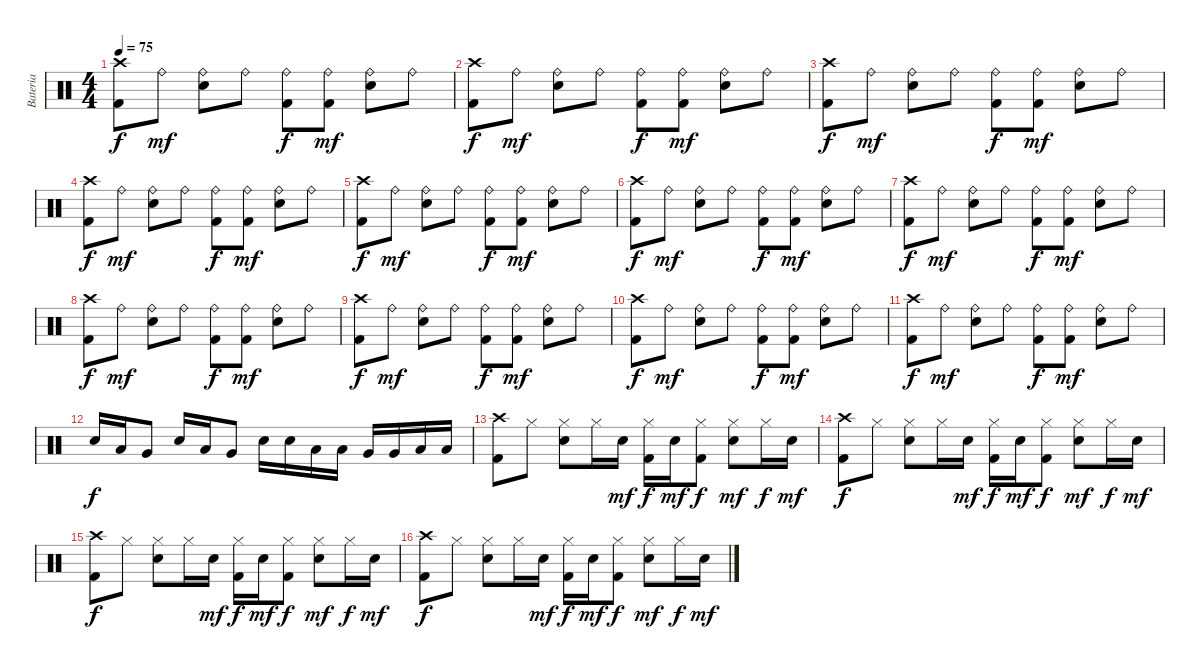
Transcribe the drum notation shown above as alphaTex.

\track ("Bateria" "Bateria") {instrument percussion}
\staff {score}
\articulation defaults
\ts (4 4)
\tempo 75
\clef neutral
\ks c
("Crash high (hit)" "Kick (hit) 2").8{dy f} "Ride (bell)".8{dy mf} ("Ride (bell)" "Snare (hit) 2").8 "Ride (bell)".8 ("Ride (bell)" "Kick (hit) 2").8{dy f} ("Ride (bell)" "Kick (hit) 2").8{dy mf} ("Ride (bell)" "Snare (hit) 2").8 "Ride (bell)".8 |
("Crash high (hit)" "Kick (hit) 2").8{dy f} "Ride (bell)".8{dy mf} ("Ride (bell)" "Snare (hit) 2").8 "Ride (bell)".8 ("Ride (bell)" "Kick (hit) 2").8{dy f} ("Ride (bell)" "Kick (hit) 2").8{dy mf} ("Ride (bell)" "Snare (hit) 2").8 "Ride (bell)".8 |
("Crash high (hit)" "Kick (hit) 2").8{dy f} "Ride (bell)".8{dy mf} ("Ride (bell)" "Snare (hit) 2").8 "Ride (bell)".8 ("Ride (bell)" "Kick (hit) 2").8{dy f} ("Ride (bell)" "Kick (hit) 2").8{dy mf} ("Ride (bell)" "Snare (hit) 2").8 "Ride (bell)".8 |
("Crash high (hit)" "Kick (hit) 2").8{dy f} "Ride (bell)".8{dy mf} ("Ride (bell)" "Snare (hit) 2").8 "Ride (bell)".8 ("Ride (bell)" "Kick (hit) 2").8{dy f} ("Ride (bell)" "Kick (hit) 2").8{dy mf} ("Ride (bell)" "Snare (hit) 2").8 "Ride (bell)".8 |
("Crash high (hit)" "Kick (hit) 2").8{dy f} "Ride (bell)".8{dy mf} ("Ride (bell)" "Snare (hit) 2").8 "Ride (bell)".8 ("Ride (bell)" "Kick (hit) 2").8{dy f} ("Ride (bell)" "Kick (hit) 2").8{dy mf} ("Ride (bell)" "Snare (hit) 2").8 "Ride (bell)".8 |
("Crash high (hit)" "Kick (hit) 2").8{dy f} "Ride (bell)".8{dy mf} ("Ride (bell)" "Snare (hit) 2").8 "Ride (bell)".8 ("Ride (bell)" "Kick (hit) 2").8{dy f} ("Ride (bell)" "Kick (hit) 2").8{dy mf} ("Ride (bell)" "Snare (hit) 2").8 "Ride (bell)".8 |
("Crash high (hit)" "Kick (hit) 2").8{dy f} "Ride (bell)".8{dy mf} ("Ride (bell)" "Snare (hit) 2").8 "Ride (bell)".8 ("Ride (bell)" "Kick (hit) 2").8{dy f} ("Ride (bell)" "Kick (hit) 2").8{dy mf} ("Ride (bell)" "Snare (hit) 2").8 "Ride (bell)".8 |
("Crash high (hit)" "Kick (hit) 2").8{dy f} "Ride (bell)".8{dy mf} ("Ride (bell)" "Snare (hit) 2").8 "Ride (bell)".8 ("Ride (bell)" "Kick (hit) 2").8{dy f} ("Ride (bell)" "Kick (hit) 2").8{dy mf} ("Ride (bell)" "Snare (hit) 2").8 "Ride (bell)".8 |
("Crash high (hit)" "Kick (hit) 2").8{dy f} "Ride (bell)".8{dy mf} ("Ride (bell)" "Snare (hit) 2").8 "Ride (bell)".8 ("Ride (bell)" "Kick (hit) 2").8{dy f} ("Ride (bell)" "Kick (hit) 2").8{dy mf} ("Ride (bell)" "Snare (hit) 2").8 "Ride (bell)".8 |
("Crash high (hit)" "Kick (hit) 2").8{dy f} "Ride (bell)".8{dy mf} ("Ride (bell)" "Snare (hit) 2").8 "Ride (bell)".8 ("Ride (bell)" "Kick (hit) 2").8{dy f} ("Ride (bell)" "Kick (hit) 2").8{dy mf} ("Ride (bell)" "Snare (hit) 2").8 "Ride (bell)".8 |
("Crash high (hit)" "Kick (hit) 2").8{dy f} "Ride (bell)".8{dy mf} ("Ride (bell)" "Snare (hit) 2").8 "Ride (bell)".8 ("Ride (bell)" "Kick (hit) 2").8{dy f} ("Ride (bell)" "Kick (hit) 2").8{dy mf} ("Ride (bell)" "Snare (hit) 2").8 "Ride (bell)".8 |
"Snare (hit) 2".16{dy f} "Low Tom (hit)".16 "Very Low Tom (hit)".8 "Snare (hit) 2".16 "Low Tom (hit)".16 "Very Low Tom (hit)".8 "Snare (hit) 2".16 "Snare (hit) 2".16 "Low Tom (hit)".16 "Low Tom (hit)".16 "Very Low Tom (hit)".16 "Very Low Tom (hit)".16 "Low Floor Tom (hit)".16 "Low Floor Tom (hit)".16 |
("Crash high (hit)" "Kick (hit) 2").8 "Hi-Hat (closed)".8 ("Hi-Hat (closed)" "Snare (hit) 2").8 "Hi-Hat (closed)".16 "Snare (hit) 2".16{dy mf} ("Hi-Hat (closed)" "Kick (hit) 2").16{dy f} "Snare (hit) 2".16{dy mf} ("Hi-Hat (closed)" "Kick (hit) 2").8{dy f} ("Hi-Hat (closed)" "Snare (hit) 2").8{dy mf} "Hi-Hat (closed)".16{dy f} "Snare (hit) 2".16{dy mf} |
("Crash high (hit)" "Kick (hit) 2").8{dy f} "Hi-Hat (closed)".8 ("Hi-Hat (closed)" "Snare (hit) 2").8 "Hi-Hat (closed)".16 "Snare (hit) 2".16{dy mf} ("Hi-Hat (closed)" "Kick (hit) 2").16{dy f} "Snare (hit) 2".16{dy mf} ("Hi-Hat (closed)" "Kick (hit) 2").8{dy f} ("Hi-Hat (closed)" "Snare (hit) 2").8{dy mf} "Hi-Hat (closed)".16{dy f} "Snare (hit) 2".16{dy mf} |
("Crash high (hit)" "Kick (hit) 2").8{dy f} "Hi-Hat (closed)".8 ("Hi-Hat (closed)" "Snare (hit) 2").8 "Hi-Hat (closed)".16 "Snare (hit) 2".16{dy mf} ("Hi-Hat (closed)" "Kick (hit) 2").16{dy f} "Snare (hit) 2".16{dy mf} ("Hi-Hat (closed)" "Kick (hit) 2").8{dy f} ("Hi-Hat (closed)" "Snare (hit) 2").8{dy mf} "Hi-Hat (closed)".16{dy f} "Snare (hit) 2".16{dy mf} |
("Crash high (hit)" "Kick (hit) 2").8{dy f} "Hi-Hat (closed)".8 ("Hi-Hat (closed)" "Snare (hit) 2").8 "Hi-Hat (closed)".16 "Snare (hit) 2".16{dy mf} ("Hi-Hat (closed)" "Kick (hit) 2").16{dy f} "Snare (hit) 2".16{dy mf} ("Hi-Hat (closed)" "Kick (hit) 2").8{dy f} ("Hi-Hat (closed)" "Snare (hit) 2").8{dy mf} "Hi-Hat (closed)".16{dy f} "Snare (hit) 2".16{dy mf}
